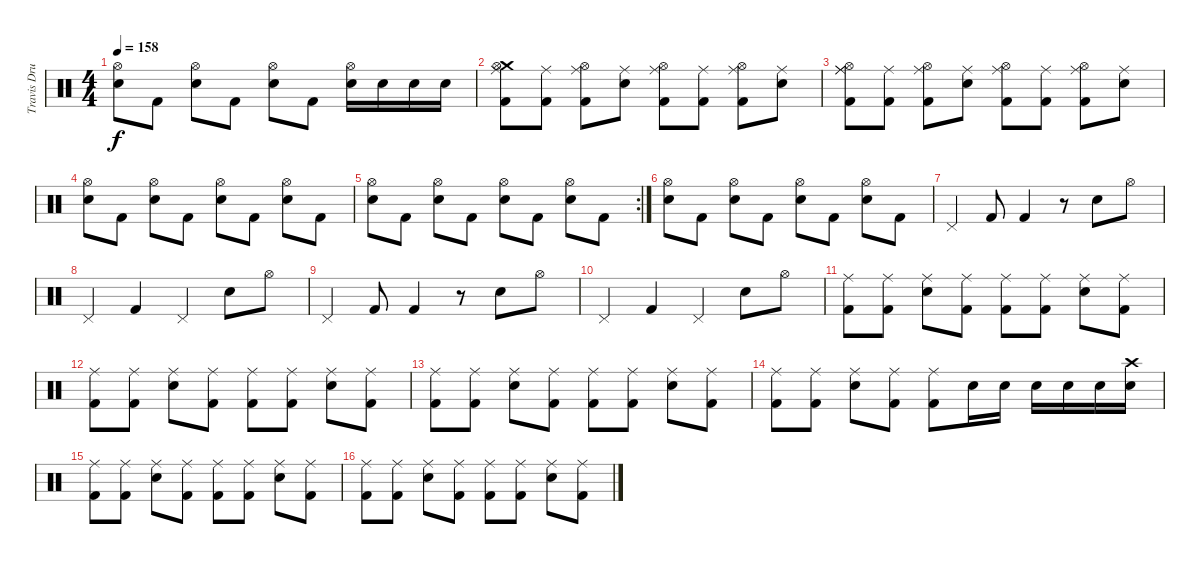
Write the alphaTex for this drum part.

\track ("Travis Drums" "Travis Dru") {instrument percussion}
\staff {score}
\articulation defaults
\ts (4 4)
\tempo 158
\clef neutral
\ks c
("Snare (hit) 2" "Hi-Hat (open)").8{dy f} "Kick (hit) 2".8 ("Snare (hit) 2" "Hi-Hat (open)").8 "Kick (hit) 2".8 ("Snare (hit) 2" "Hi-Hat (open)").8 "Kick (hit) 2".8 ("Snare (hit) 2" "Hi-Hat (open)").16 "Snare (hit) 2".16 "Snare (hit) 2".16 "Snare (hit) 2".16 |
("Kick (hit) 2" "Crash medium (hit)" "Hi-Hat (open)" "Ride (middle)").8 ("Kick (hit) 2" "Ride (middle)").8 ("Kick (hit) 2" "Ride (middle)" "Hi-Hat (open)").8 ("Snare (hit) 2" "Ride (middle)").8 ("Kick (hit) 2" "Ride (middle)" "Hi-Hat (open)").8 ("Kick (hit) 2" "Ride (middle)").8 ("Kick (hit) 2" "Ride (middle)" "Hi-Hat (open)").8 ("Snare (hit) 2" "Ride (middle)").8 |
("Kick (hit) 2" "Ride (middle)" "Hi-Hat (open)" "Ride (middle)").8 ("Kick (hit) 2" "Ride (middle)").8 ("Kick (hit) 2" "Ride (middle)" "Hi-Hat (open)").8 ("Snare (hit) 2" "Ride (middle)").8 ("Kick (hit) 2" "Ride (middle)" "Hi-Hat (open)").8 ("Kick (hit) 2" "Ride (middle)").8 ("Kick (hit) 2" "Ride (middle)" "Hi-Hat (open)").8 ("Snare (hit) 2" "Ride (middle)").8 |
("Snare (hit) 2" "Hi-Hat (open)").8 "Kick (hit) 2".8 ("Snare (hit) 2" "Hi-Hat (open)").8 "Kick (hit) 2".8 ("Snare (hit) 2" "Hi-Hat (open)").8 "Kick (hit) 2".8 ("Snare (hit) 2" "Hi-Hat (open)").8 "Kick (hit) 2".8 |
\rc 2
("Snare (hit) 2" "Hi-Hat (open)").8 "Kick (hit) 2".8 ("Snare (hit) 2" "Hi-Hat (open)").8 "Kick (hit) 2".8 ("Snare (hit) 2" "Hi-Hat (open)").8 "Kick (hit) 2".8 ("Snare (hit) 2" "Hi-Hat (open)").8 "Kick (hit) 2".8 |
("Snare (hit) 2" "Hi-Hat (open)").8 "Kick (hit) 2".8 ("Snare (hit) 2" "Hi-Hat (open)").8 "Kick (hit) 2".8 ("Snare (hit) 2" "Hi-Hat (open)").8 "Kick (hit) 2".8 ("Snare (hit) 2" "Hi-Hat (open)").8 "Kick (hit) 2".8 |
"Pedal Hi-Hat (hit)".4 "Kick (hit) 2".8 "Kick (hit) 2".4 r.8 "Snare (hit) 2".8 "Hi-Hat (open)".8 |
"Pedal Hi-Hat (hit)".4 "Kick (hit) 2".4 "Pedal Hi-Hat (hit)".4 "Snare (hit) 2".8 "Hi-Hat (open)".8 |
"Pedal Hi-Hat (hit)".4 "Kick (hit) 2".8 "Kick (hit) 2".4 r.8 "Snare (hit) 2".8 "Hi-Hat (open)".8 |
"Pedal Hi-Hat (hit)".4 "Kick (hit) 2".4 "Pedal Hi-Hat (hit)".4 "Snare (hit) 2".8 "Hi-Hat (open)".8 |
("Ride (middle)" "Kick (hit) 2").8 ("Ride (middle)" "Kick (hit) 2").8 ("Ride (middle)" "Snare (hit) 2").8 ("Ride (middle)" "Kick (hit) 2").8 ("Ride (middle)" "Kick (hit) 2").8 ("Ride (middle)" "Kick (hit) 2").8 ("Ride (middle)" "Snare (hit) 2").8 ("Ride (middle)" "Kick (hit) 2").8 |
("Ride (middle)" "Kick (hit) 2").8 ("Ride (middle)" "Kick (hit) 2").8 ("Ride (middle)" "Snare (hit) 2").8 ("Ride (middle)" "Kick (hit) 2").8 ("Ride (middle)" "Kick (hit) 2").8 ("Ride (middle)" "Kick (hit) 2").8 ("Ride (middle)" "Snare (hit) 2").8 ("Ride (middle)" "Kick (hit) 2").8 |
("Ride (middle)" "Kick (hit) 2").8 ("Ride (middle)" "Kick (hit) 2").8 ("Ride (middle)" "Snare (hit) 2").8 ("Ride (middle)" "Kick (hit) 2").8 ("Ride (middle)" "Kick (hit) 2").8 ("Ride (middle)" "Kick (hit) 2").8 ("Ride (middle)" "Snare (hit) 2").8 ("Ride (middle)" "Kick (hit) 2").8 |
("Ride (middle)" "Kick (hit) 2").8 ("Ride (middle)" "Kick (hit) 2").8 ("Ride (middle)" "Snare (hit) 2").8 ("Ride (middle)" "Kick (hit) 2").8 ("Ride (middle)" "Kick (hit) 2").8 "Snare (hit) 2".16 "Snare (hit) 2".16 "Snare (hit) 2".16 "Snare (hit) 2".16 "Snare (hit) 2".16 ("Snare (hit) 2" "Crash high (hit)").16 |
("Ride (middle)" "Kick (hit) 2").8 ("Ride (middle)" "Kick (hit) 2").8 ("Ride (middle)" "Snare (hit) 2").8 ("Ride (middle)" "Kick (hit) 2").8 ("Ride (middle)" "Kick (hit) 2").8 ("Ride (middle)" "Kick (hit) 2").8 ("Ride (middle)" "Snare (hit) 2").8 ("Ride (middle)" "Kick (hit) 2").8 |
("Ride (middle)" "Kick (hit) 2").8 ("Ride (middle)" "Kick (hit) 2").8 ("Ride (middle)" "Snare (hit) 2").8 ("Ride (middle)" "Kick (hit) 2").8 ("Ride (middle)" "Kick (hit) 2").8 ("Ride (middle)" "Kick (hit) 2").8 ("Ride (middle)" "Snare (hit) 2").8 ("Ride (middle)" "Kick (hit) 2").8
